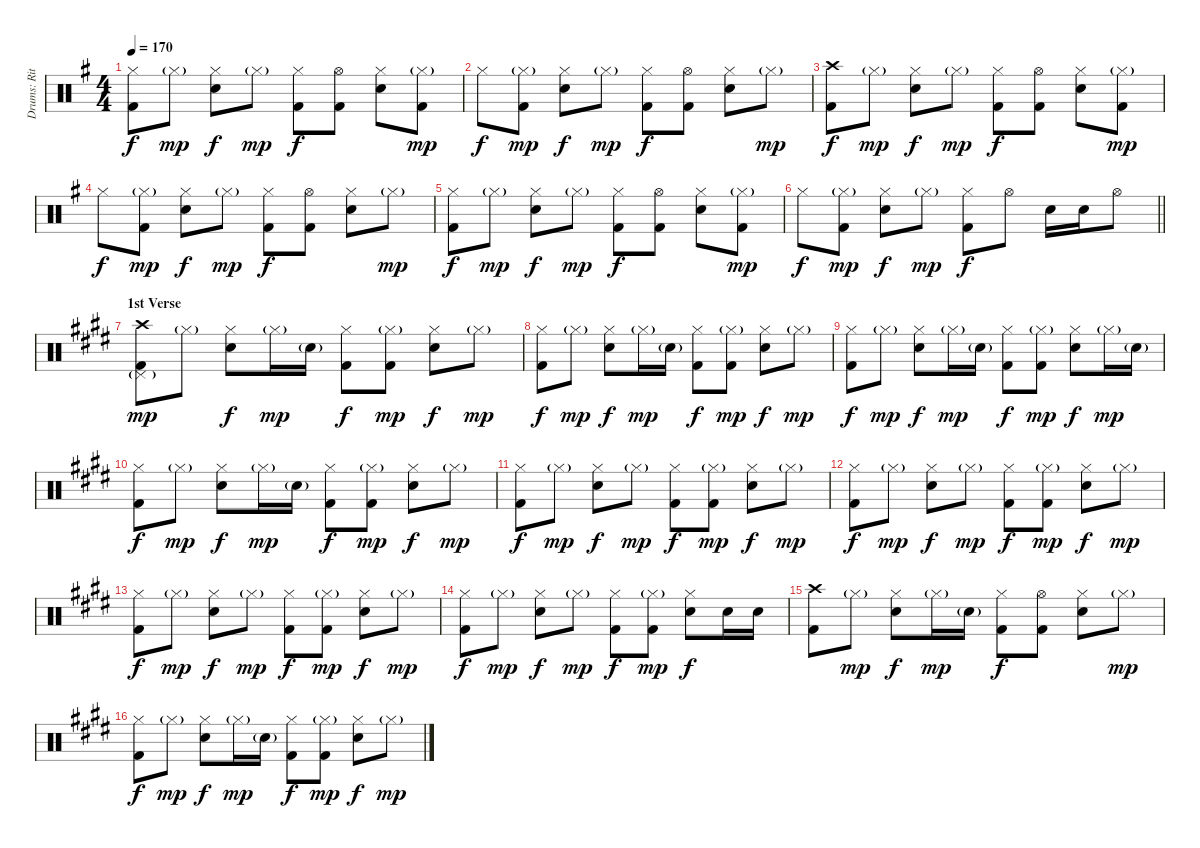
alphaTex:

\track ("Drums: Ritsu Tainaka" "Drums: Rit") {instrument percussion}
\staff {score}
\articulation defaults
\ts (4 4)
\tempo 170
\clef neutral
\ks g
("Hi-Hat (closed)" "Kick (hit) 2").8{dy f} "Hi-Hat (closed)"{g}.8{dy mp} ("Hi-Hat (closed)" "Electric Snare (hit)").8{dy f} "Hi-Hat (closed)"{g}.8{dy mp} ("Hi-Hat (closed)" "Kick (hit) 2").8{dy f} ("Hi-Hat (open)" "Kick (hit) 2").8 ("Hi-Hat (closed)" "Electric Snare (hit)").8 ("Hi-Hat (closed)"{g} "Kick (hit) 2").8{dy mp} |
"Hi-Hat (closed)".8{dy f} ("Hi-Hat (closed)"{g} "Kick (hit) 2").8{dy mp} ("Hi-Hat (closed)" "Electric Snare (hit)").8{dy f} "Hi-Hat (closed)"{g}.8{dy mp} ("Hi-Hat (closed)" "Kick (hit) 2").8{dy f} ("Hi-Hat (open)" "Kick (hit) 2").8 ("Hi-Hat (closed)" "Electric Snare (hit)").8 "Hi-Hat (closed)"{g}.8{dy mp} |
("Crash high (hit)" "Kick (hit) 2").8{dy f} "Hi-Hat (closed)"{g}.8{dy mp} ("Hi-Hat (closed)" "Electric Snare (hit)").8{dy f} "Hi-Hat (closed)"{g}.8{dy mp} ("Hi-Hat (closed)" "Kick (hit) 2").8{dy f} ("Hi-Hat (open)" "Kick (hit) 2").8 ("Hi-Hat (closed)" "Electric Snare (hit)").8 ("Hi-Hat (closed)"{g} "Kick (hit) 2").8{dy mp} |
"Hi-Hat (closed)".8{dy f} ("Hi-Hat (closed)"{g} "Kick (hit) 2").8{dy mp} ("Hi-Hat (closed)" "Electric Snare (hit)").8{dy f} "Hi-Hat (closed)"{g}.8{dy mp} ("Hi-Hat (closed)" "Kick (hit) 2").8{dy f} ("Hi-Hat (open)" "Kick (hit) 2").8 ("Hi-Hat (closed)" "Electric Snare (hit)").8 "Hi-Hat (closed)"{g}.8{dy mp} |
("Hi-Hat (closed)" "Kick (hit) 2").8{dy f} "Hi-Hat (closed)"{g}.8{dy mp} ("Hi-Hat (closed)" "Electric Snare (hit)").8{dy f} "Hi-Hat (closed)"{g}.8{dy mp} ("Hi-Hat (closed)" "Kick (hit) 2").8{dy f} ("Hi-Hat (open)" "Kick (hit) 2").8 ("Hi-Hat (closed)" "Electric Snare (hit)").8 ("Hi-Hat (closed)"{g} "Kick (hit) 2").8{dy mp} |
\barLineRight lightlight "Hi-Hat (closed)".8{dy f}
("Hi-Hat (closed)"{g} "Kick (hit) 2").8{dy mp} ("Hi-Hat (closed)" "Electric Snare (hit)").8{dy f} "Hi-Hat (closed)"{g}.8{dy mp} ("Hi-Hat (closed)" "Kick (hit) 2").8{dy f} "Hi-Hat (open)".8 "Electric Snare (hit)".16 "Electric Snare (hit)".16 "Hi-Hat (open)".8 |
\section ("" "1st Verse")
\ks e
("Crash high (hit)" "Pedal Hi-Hat (hit)"{g} "Kick (hit) 2").8{dy mp} "Hi-Hat (closed)"{g}.8 ("Hi-Hat (closed)" "Electric Snare (hit)").8{dy f} "Hi-Hat (closed)"{g}.16{dy mp} "Electric Snare (hit)"{g}.16 ("Hi-Hat (closed)" "Kick (hit) 2").8{dy f} ("Hi-Hat (closed)"{g} "Kick (hit) 2").8{dy mp} ("Hi-Hat (closed)" "Electric Snare (hit)").8{dy f} "Hi-Hat (closed)"{g}.8{dy mp} |
("Hi-Hat (closed)" "Kick (hit) 2").8{dy f} "Hi-Hat (closed)"{g}.8{dy mp} ("Hi-Hat (closed)" "Electric Snare (hit)").8{dy f} "Hi-Hat (closed)"{g}.16{dy mp} "Electric Snare (hit)"{g}.16 ("Hi-Hat (closed)" "Kick (hit) 2").8{dy f} ("Hi-Hat (closed)"{g} "Kick (hit) 2").8{dy mp} ("Hi-Hat (closed)" "Electric Snare (hit)").8{dy f} "Hi-Hat (closed)"{g}.8{dy mp} |
("Hi-Hat (closed)" "Kick (hit) 2").8{dy f} "Hi-Hat (closed)"{g}.8{dy mp} ("Hi-Hat (closed)" "Electric Snare (hit)").8{dy f} "Hi-Hat (closed)"{g}.16{dy mp} "Electric Snare (hit)"{g}.16 ("Hi-Hat (closed)" "Kick (hit) 2").8{dy f} ("Hi-Hat (closed)"{g} "Kick (hit) 2").8{dy mp} ("Hi-Hat (closed)" "Electric Snare (hit)").8{dy f} "Hi-Hat (closed)"{g}.16{dy mp} "Electric Snare (hit)"{g}.16 |
("Hi-Hat (closed)" "Kick (hit) 2").8{dy f} "Hi-Hat (closed)"{g}.8{dy mp} ("Hi-Hat (closed)" "Electric Snare (hit)").8{dy f} "Hi-Hat (closed)"{g}.16{dy mp} "Electric Snare (hit)"{g}.16 ("Hi-Hat (closed)" "Kick (hit) 2").8{dy f} ("Hi-Hat (closed)"{g} "Kick (hit) 2").8{dy mp} ("Hi-Hat (closed)" "Electric Snare (hit)").8{dy f} "Hi-Hat (closed)"{g}.8{dy mp} |
("Hi-Hat (closed)" "Kick (hit) 2").8{dy f} "Hi-Hat (closed)"{g}.8{dy mp} ("Hi-Hat (closed)" "Electric Snare (hit)").8{dy f} "Hi-Hat (closed)"{g}.8{dy mp} ("Hi-Hat (closed)" "Kick (hit) 2").8{dy f} ("Hi-Hat (closed)"{g} "Kick (hit) 2").8{dy mp} ("Hi-Hat (closed)" "Electric Snare (hit)").8{dy f} "Hi-Hat (closed)"{g}.8{dy mp} |
("Hi-Hat (closed)" "Kick (hit) 2").8{dy f} "Hi-Hat (closed)"{g}.8{dy mp} ("Hi-Hat (closed)" "Electric Snare (hit)").8{dy f} "Hi-Hat (closed)"{g}.8{dy mp} ("Hi-Hat (closed)" "Kick (hit) 2").8{dy f} ("Hi-Hat (closed)"{g} "Kick (hit) 2").8{dy mp} ("Hi-Hat (closed)" "Electric Snare (hit)").8{dy f} "Hi-Hat (closed)"{g}.8{dy mp} |
("Hi-Hat (closed)" "Kick (hit) 2").8{dy f} "Hi-Hat (closed)"{g}.8{dy mp} ("Hi-Hat (closed)" "Electric Snare (hit)").8{dy f} "Hi-Hat (closed)"{g}.8{dy mp} ("Hi-Hat (closed)" "Kick (hit) 2").8{dy f} ("Hi-Hat (closed)"{g} "Kick (hit) 2").8{dy mp} ("Hi-Hat (closed)" "Electric Snare (hit)").8{dy f} "Hi-Hat (closed)"{g}.8{dy mp} |
("Hi-Hat (closed)" "Kick (hit) 2").8{dy f} "Hi-Hat (closed)"{g}.8{dy mp} ("Hi-Hat (closed)" "Electric Snare (hit)").8{dy f} "Hi-Hat (closed)"{g}.8{dy mp} ("Hi-Hat (closed)" "Kick (hit) 2").8{dy f} ("Hi-Hat (closed)"{g} "Kick (hit) 2").8{dy mp} ("Hi-Hat (closed)" "Electric Snare (hit)").8{dy f} "Electric Snare (hit)".16 "Electric Snare (hit)".16 |
("Crash high (hit)" "Kick (hit) 2").8 "Hi-Hat (closed)"{g}.8{dy mp} ("Hi-Hat (closed)" "Electric Snare (hit)").8{dy f} "Hi-Hat (closed)"{g}.16{dy mp} "Electric Snare (hit)"{g}.16 ("Hi-Hat (closed)" "Kick (hit) 2").8{dy f} ("Hi-Hat (open)" "Kick (hit) 2").8 ("Hi-Hat (closed)" "Electric Snare (hit)").8 "Hi-Hat (closed)"{g}.8{dy mp} |
("Hi-Hat (closed)" "Kick (hit) 2").8{dy f} "Hi-Hat (closed)"{g}.8{dy mp} ("Hi-Hat (closed)" "Electric Snare (hit)").8{dy f} "Hi-Hat (closed)"{g}.16{dy mp} "Electric Snare (hit)"{g}.16 ("Hi-Hat (closed)" "Kick (hit) 2").8{dy f} ("Hi-Hat (closed)"{g} "Kick (hit) 2").8{dy mp} ("Hi-Hat (closed)" "Electric Snare (hit)").8{dy f} "Hi-Hat (closed)"{g}.8{dy mp}
